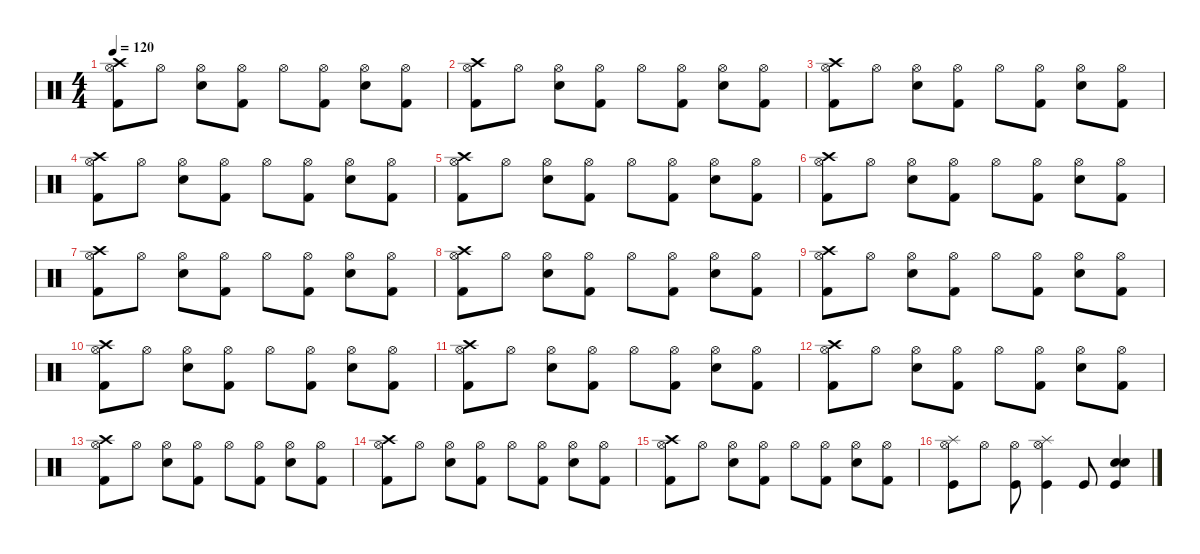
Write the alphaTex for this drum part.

\defaultSystemsLayout 4
\hideDynamics
\bracketExtendMode nobrackets
\singleTrackTrackNamePolicy hidden
\multiTrackTrackNamePolicy hidden
\otherSystemsTrackNameOrientation horizontal
\track ("Percussion" "drm.") {instrument percussion}
\staff {score}
\articulation defaults
\ts (4 4)
\tempo 120
\clef neutral
\ks c
("Kick (hit) 2" "Hi-Hat (open)" "Crash high (hit)").8{dy f beam Down} "Hi-Hat (open)".8{beam Down} ("Snare (hit) 2" "Hi-Hat (open)").8{beam Down} ("Kick (hit) 2" "Hi-Hat (open)").8{beam Down} "Hi-Hat (open)".8{beam Down} ("Kick (hit) 2" "Hi-Hat (open)").8{beam Down} ("Snare (hit) 2" "Hi-Hat (open)").8{beam Down} ("Kick (hit) 2" "Hi-Hat (open)").8{beam Down} |
("Kick (hit) 2" "Hi-Hat (open)" "Crash high (hit)").8{beam Down} "Hi-Hat (open)".8{beam Down} ("Snare (hit) 2" "Hi-Hat (open)").8{beam Down} ("Kick (hit) 2" "Hi-Hat (open)").8{beam Down} "Hi-Hat (open)".8{beam Down} ("Kick (hit) 2" "Hi-Hat (open)").8{beam Down} ("Snare (hit) 2" "Hi-Hat (open)").8{beam Down} ("Kick (hit) 2" "Hi-Hat (open)").8{beam Down} |
("Kick (hit) 2" "Hi-Hat (open)" "Crash high (hit)").8{beam Down} "Hi-Hat (open)".8{beam Down} ("Snare (hit) 2" "Hi-Hat (open)").8{beam Down} ("Kick (hit) 2" "Hi-Hat (open)").8{beam Down} "Hi-Hat (open)".8{beam Down} ("Kick (hit) 2" "Hi-Hat (open)").8{beam Down} ("Snare (hit) 2" "Hi-Hat (open)").8{beam Down} ("Kick (hit) 2" "Hi-Hat (open)").8{beam Down} |
("Kick (hit) 2" "Hi-Hat (open)" "Crash high (hit)").8{beam Down} "Hi-Hat (open)".8{beam Down} ("Snare (hit) 2" "Hi-Hat (open)").8{beam Down} ("Kick (hit) 2" "Hi-Hat (open)").8{beam Down} "Hi-Hat (open)".8{beam Down} ("Kick (hit) 2" "Hi-Hat (open)").8{beam Down} ("Snare (hit) 2" "Hi-Hat (open)").8{beam Down} ("Kick (hit) 2" "Hi-Hat (open)").8{beam Down} |
("Kick (hit) 2" "Hi-Hat (open)" "Crash high (hit)").8{beam Down} "Hi-Hat (open)".8{beam Down} ("Snare (hit) 2" "Hi-Hat (open)").8{beam Down} ("Kick (hit) 2" "Hi-Hat (open)").8{beam Down} "Hi-Hat (open)".8{beam Down} ("Kick (hit) 2" "Hi-Hat (open)").8{beam Down} ("Snare (hit) 2" "Hi-Hat (open)").8{beam Down} ("Kick (hit) 2" "Hi-Hat (open)").8{beam Down} |
("Kick (hit) 2" "Hi-Hat (open)" "Crash high (hit)").8{beam Down} "Hi-Hat (open)".8{beam Down} ("Snare (hit) 2" "Hi-Hat (open)").8{beam Down} ("Kick (hit) 2" "Hi-Hat (open)").8{beam Down} "Hi-Hat (open)".8{beam Down} ("Kick (hit) 2" "Hi-Hat (open)").8{beam Down} ("Snare (hit) 2" "Hi-Hat (open)").8{beam Down} ("Kick (hit) 2" "Hi-Hat (open)").8{beam Down} |
("Kick (hit) 2" "Hi-Hat (open)" "Crash high (hit)").8{beam Down} "Hi-Hat (open)".8{beam Down} ("Snare (hit) 2" "Hi-Hat (open)").8{beam Down} ("Kick (hit) 2" "Hi-Hat (open)").8{beam Down} "Hi-Hat (open)".8{beam Down} ("Kick (hit) 2" "Hi-Hat (open)").8{beam Down} ("Snare (hit) 2" "Hi-Hat (open)").8{beam Down} ("Kick (hit) 2" "Hi-Hat (open)").8{beam Down} |
("Kick (hit) 2" "Hi-Hat (open)" "Crash high (hit)").8{beam Down} "Hi-Hat (open)".8{beam Down} ("Snare (hit) 2" "Hi-Hat (open)").8{beam Down} ("Kick (hit) 2" "Hi-Hat (open)").8{beam Down} "Hi-Hat (open)".8{beam Down} ("Kick (hit) 2" "Hi-Hat (open)").8{beam Down} ("Snare (hit) 2" "Hi-Hat (open)").8{beam Down} ("Kick (hit) 2" "Hi-Hat (open)").8{beam Down} |
("Kick (hit) 2" "Hi-Hat (open)" "Crash high (hit)").8{beam Down} "Hi-Hat (open)".8{beam Down} ("Snare (hit) 2" "Hi-Hat (open)").8{beam Down} ("Kick (hit) 2" "Hi-Hat (open)").8{beam Down} "Hi-Hat (open)".8{beam Down} ("Kick (hit) 2" "Hi-Hat (open)").8{beam Down} ("Snare (hit) 2" "Hi-Hat (open)").8{beam Down} ("Kick (hit) 2" "Hi-Hat (open)").8{beam Down} |
("Kick (hit) 2" "Hi-Hat (open)" "Crash high (hit)").8{beam Down} "Hi-Hat (open)".8{beam Down} ("Snare (hit) 2" "Hi-Hat (open)").8{beam Down} ("Kick (hit) 2" "Hi-Hat (open)").8{beam Down} "Hi-Hat (open)".8{beam Down} ("Kick (hit) 2" "Hi-Hat (open)").8{beam Down} ("Snare (hit) 2" "Hi-Hat (open)").8{beam Down} ("Kick (hit) 2" "Hi-Hat (open)").8{beam Down} |
("Kick (hit) 2" "Hi-Hat (open)" "Crash high (hit)").8{beam Down} "Hi-Hat (open)".8{beam Down} ("Snare (hit) 2" "Hi-Hat (open)").8{beam Down} ("Kick (hit) 2" "Hi-Hat (open)").8{beam Down} "Hi-Hat (open)".8{beam Down} ("Kick (hit) 2" "Hi-Hat (open)").8{beam Down} ("Snare (hit) 2" "Hi-Hat (open)").8{beam Down} ("Kick (hit) 2" "Hi-Hat (open)").8{beam Down} |
("Kick (hit) 2" "Hi-Hat (open)" "Crash high (hit)").8{beam Down} "Hi-Hat (open)".8{beam Down} ("Snare (hit) 2" "Hi-Hat (open)").8{beam Down} ("Kick (hit) 2" "Hi-Hat (open)").8{beam Down} "Hi-Hat (open)".8{beam Down} ("Kick (hit) 2" "Hi-Hat (open)").8{beam Down} ("Snare (hit) 2" "Hi-Hat (open)").8{beam Down} ("Kick (hit) 2" "Hi-Hat (open)").8{beam Down} |
("Kick (hit) 2" "Hi-Hat (open)" "Crash high (hit)").8{beam Down} "Hi-Hat (open)".8{beam Down} ("Snare (hit) 2" "Hi-Hat (open)").8{beam Down} ("Kick (hit) 2" "Hi-Hat (open)").8{beam Down} "Hi-Hat (open)".8{beam Down} ("Kick (hit) 2" "Hi-Hat (open)").8{beam Down} ("Snare (hit) 2" "Hi-Hat (open)").8{beam Down} ("Kick (hit) 2" "Hi-Hat (open)").8{beam Down} |
("Kick (hit) 2" "Hi-Hat (open)" "Crash high (hit)").8{beam Down} "Hi-Hat (open)".8{beam Down} ("Snare (hit) 2" "Hi-Hat (open)").8{beam Down} ("Kick (hit) 2" "Hi-Hat (open)").8{beam Down} "Hi-Hat (open)".8{beam Down} ("Kick (hit) 2" "Hi-Hat (open)").8{beam Down} ("Snare (hit) 2" "Hi-Hat (open)").8{beam Down} ("Kick (hit) 2" "Hi-Hat (open)").8{beam Down} |
("Kick (hit) 2" "Hi-Hat (open)" "Crash high (hit)").8{beam Down} "Hi-Hat (open)".8{beam Down} ("Snare (hit) 2" "Hi-Hat (open)").8{beam Down} ("Kick (hit) 2" "Hi-Hat (open)").8{beam Down} "Hi-Hat (open)".8{beam Down} ("Kick (hit) 2" "Hi-Hat (open)").8{beam Down} ("Snare (hit) 2" "Hi-Hat (open)").8{beam Down} ("Kick (hit) 2" "Hi-Hat (open)").8{beam Down} |
("Hi-Hat (open)" "Kick (hit)" "Splash (hit)").8{beam Down} "Hi-Hat (open)".8{beam Down} ("Hi-Hat (open)" "Kick (hit)").8{beam Down} ("Hi-Hat (open)" "Splash (hit)" "Kick (hit)").4{beam Down} "Kick (hit)".8{beam Up} ("Kick (hit)" "Snare (hit) 2" "Snare (hit) 2").4{beam Up}
